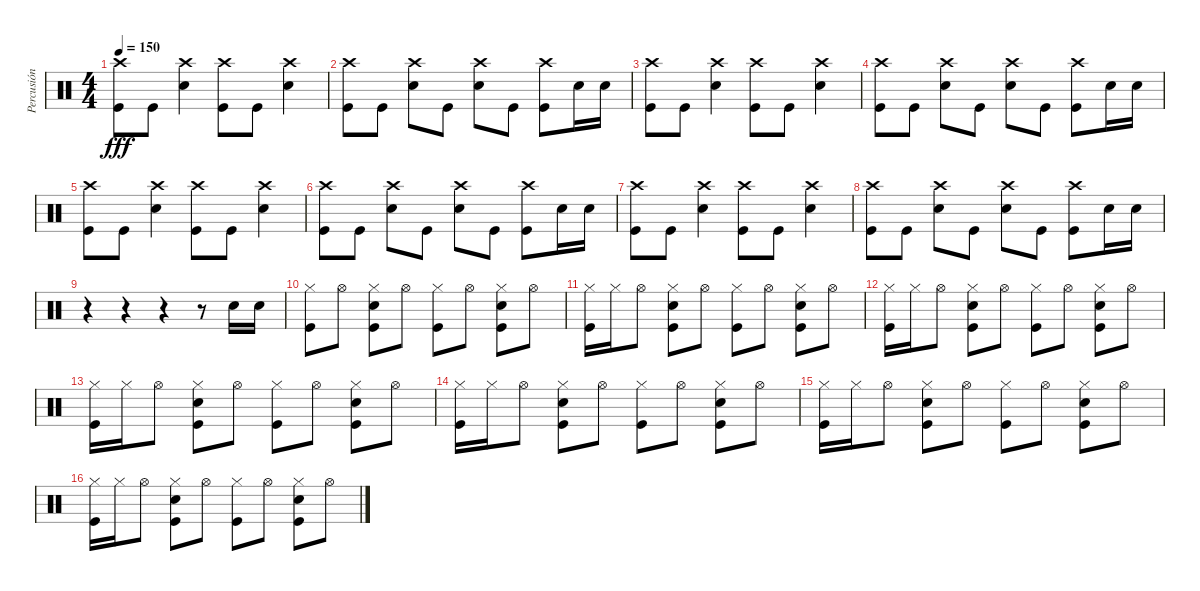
\track ("Percusión" "Percusión") {instrument percussion}
\staff {score}
\articulation defaults
\ts (4 4)
\tempo 150
\clef neutral
\ks c
("Crash high (hit)" "Kick (hit)").8{dy fff} "Kick (hit)".8 ("Snare (hit) 2" "Crash high (hit)").4 ("Crash high (hit)" "Kick (hit)").8 "Kick (hit)".8 ("Snare (hit) 2" "Crash high (hit)").4 |
("Kick (hit)" "Crash high (hit)").8 "Kick (hit)".8 ("Snare (hit) 2" "Crash high (hit)").8 "Kick (hit)".8 ("Snare (hit) 2" "Crash high (hit)").8 "Kick (hit)".8 ("Kick (hit)" "Crash high (hit)").8 "Snare (hit) 2".16 "Snare (hit) 2".16 |
("Crash high (hit)" "Kick (hit)").8 "Kick (hit)".8 ("Snare (hit) 2" "Crash high (hit)").4 ("Crash high (hit)" "Kick (hit)").8 "Kick (hit)".8 ("Snare (hit) 2" "Crash high (hit)").4 |
("Kick (hit)" "Crash high (hit)").8 "Kick (hit)".8 ("Snare (hit) 2" "Crash high (hit)").8 "Kick (hit)".8 ("Snare (hit) 2" "Crash high (hit)").8 "Kick (hit)".8 ("Kick (hit)" "Crash high (hit)").8 "Snare (hit) 2".16 "Snare (hit) 2".16 |
("Crash high (hit)" "Kick (hit)").8 "Kick (hit)".8 ("Snare (hit) 2" "Crash high (hit)").4 ("Crash high (hit)" "Kick (hit)").8 "Kick (hit)".8 ("Snare (hit) 2" "Crash high (hit)").4 |
("Kick (hit)" "Crash high (hit)").8 "Kick (hit)".8 ("Snare (hit) 2" "Crash high (hit)").8 "Kick (hit)".8 ("Snare (hit) 2" "Crash high (hit)").8 "Kick (hit)".8 ("Kick (hit)" "Crash high (hit)").8 "Snare (hit) 2".16 "Snare (hit) 2".16 |
("Crash high (hit)" "Kick (hit)").8 "Kick (hit)".8 ("Snare (hit) 2" "Crash high (hit)").4 ("Crash high (hit)" "Kick (hit)").8 "Kick (hit)".8 ("Snare (hit) 2" "Crash high (hit)").4 |
("Kick (hit)" "Crash high (hit)").8 "Kick (hit)".8 ("Snare (hit) 2" "Crash high (hit)").8 "Kick (hit)".8 ("Snare (hit) 2" "Crash high (hit)").8 "Kick (hit)".8 ("Kick (hit)" "Crash high (hit)").8 "Snare (hit) 2".16 "Snare (hit) 2".16 |
r.4 r.4 r.4 r.8 "Snare (hit) 2".16 "Snare (hit) 2".16 |
("Hi-Hat (closed)" "Kick (hit)").8 "Hi-Hat (open)".8 ("Kick (hit)" "Snare (hit) 2" "Hi-Hat (closed)").8 "Hi-Hat (open)".8 ("Kick (hit)" "Hi-Hat (closed)").8 "Hi-Hat (open)".8 ("Snare (hit) 2" "Kick (hit)" "Hi-Hat (closed)").8 "Hi-Hat (open)".8 |
("Kick (hit)" "Hi-Hat (closed)").16 "Hi-Hat (closed)".16 "Hi-Hat (open)".8 ("Hi-Hat (closed)" "Kick (hit)" "Snare (hit) 2").8 "Hi-Hat (open)".8 ("Kick (hit)" "Hi-Hat (closed)").8 "Hi-Hat (open)".8 ("Snare (hit) 2" "Kick (hit)" "Hi-Hat (closed)").8 "Hi-Hat (open)".8 |
("Kick (hit)" "Hi-Hat (closed)").16 "Hi-Hat (closed)".16 "Hi-Hat (open)".8 ("Hi-Hat (closed)" "Kick (hit)" "Snare (hit) 2").8 "Hi-Hat (open)".8 ("Kick (hit)" "Hi-Hat (closed)").8 "Hi-Hat (open)".8 ("Snare (hit) 2" "Kick (hit)" "Hi-Hat (closed)").8 "Hi-Hat (open)".8 |
("Kick (hit)" "Hi-Hat (closed)").16 "Hi-Hat (closed)".16 "Hi-Hat (open)".8 ("Hi-Hat (closed)" "Kick (hit)" "Snare (hit) 2").8 "Hi-Hat (open)".8 ("Kick (hit)" "Hi-Hat (closed)").8 "Hi-Hat (open)".8 ("Snare (hit) 2" "Kick (hit)" "Hi-Hat (closed)").8 "Hi-Hat (open)".8 |
("Kick (hit)" "Hi-Hat (closed)").16 "Hi-Hat (closed)".16 "Hi-Hat (open)".8 ("Hi-Hat (closed)" "Kick (hit)" "Snare (hit) 2").8 "Hi-Hat (open)".8 ("Kick (hit)" "Hi-Hat (closed)").8 "Hi-Hat (open)".8 ("Snare (hit) 2" "Kick (hit)" "Hi-Hat (closed)").8 "Hi-Hat (open)".8 |
("Kick (hit)" "Hi-Hat (closed)").16 "Hi-Hat (closed)".16 "Hi-Hat (open)".8 ("Hi-Hat (closed)" "Kick (hit)" "Snare (hit) 2").8 "Hi-Hat (open)".8 ("Kick (hit)" "Hi-Hat (closed)").8 "Hi-Hat (open)".8 ("Snare (hit) 2" "Kick (hit)" "Hi-Hat (closed)").8 "Hi-Hat (open)".8 |
("Kick (hit)" "Hi-Hat (closed)").16 "Hi-Hat (closed)".16 "Hi-Hat (open)".8 ("Hi-Hat (closed)" "Kick (hit)" "Snare (hit) 2").8 "Hi-Hat (open)".8 ("Kick (hit)" "Hi-Hat (closed)").8 "Hi-Hat (open)".8 ("Snare (hit) 2" "Kick (hit)" "Hi-Hat (closed)").8 "Hi-Hat (open)".8
